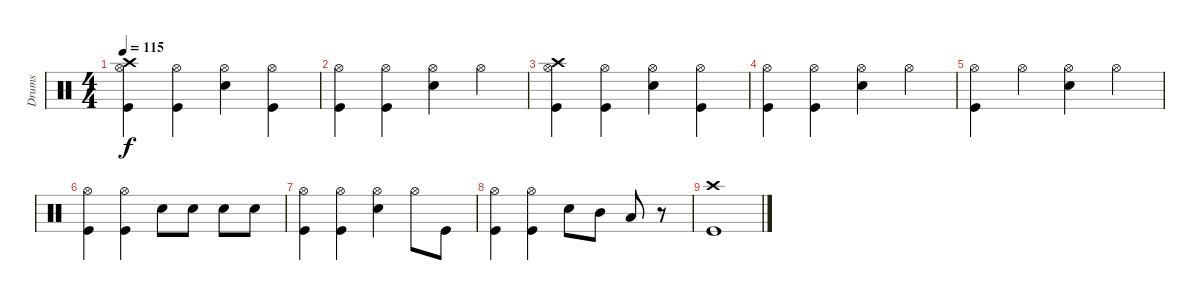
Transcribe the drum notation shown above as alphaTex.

\track ("Drums" "Drums") {instrument percussion}
\staff {score}
\articulation defaults
\ts (4 4)
\tempo 115
\clef neutral
\ks c
("Crash high (hit)" "Hi-Hat (open)" "Kick (hit)").4{dy f} ("Hi-Hat (open)" "Kick (hit)").4 ("Hi-Hat (open)" "Snare (hit) 2").4 ("Hi-Hat (open)" "Kick (hit)").4 |
("Hi-Hat (open)" "Kick (hit)").4 ("Hi-Hat (open)" "Kick (hit)").4 ("Hi-Hat (open)" "Snare (hit) 2").4 "Hi-Hat (open)".4 |
("Crash high (hit)" "Hi-Hat (open)" "Kick (hit)").4 ("Hi-Hat (open)" "Kick (hit)").4 ("Hi-Hat (open)" "Snare (hit) 2").4 ("Hi-Hat (open)" "Kick (hit)").4 |
("Hi-Hat (open)" "Kick (hit)").4 ("Hi-Hat (open)" "Kick (hit)").4 ("Hi-Hat (open)" "Snare (hit) 2").4 "Hi-Hat (open)".4 |
("Hi-Hat (open)" "Kick (hit)").4 "Hi-Hat (open)".4 ("Hi-Hat (open)" "Snare (hit) 2").4 "Hi-Hat (open)".4 |
("Hi-Hat (open)" "Kick (hit)").4 ("Hi-Hat (open)" "Kick (hit)").4 "Snare (hit) 2".8 "Snare (hit) 2".8 "Snare (hit) 2".8 "Snare (hit) 2".8 |
("Hi-Hat (open)" "Kick (hit)").4 ("Hi-Hat (open)" "Kick (hit)").4 ("Hi-Hat (open)" "Snare (hit) 2").4 "Hi-Hat (open)".8 "Kick (hit)".8 |
("Hi-Hat (open)" "Kick (hit)").4 ("Hi-Hat (open)" "Kick (hit)").4 "Snare (hit) 2".8 "Mid Tom (hit)".8 "Low Tom (hit)".8 r.8 |
("Crash high (hit)" "Kick (hit)").1
